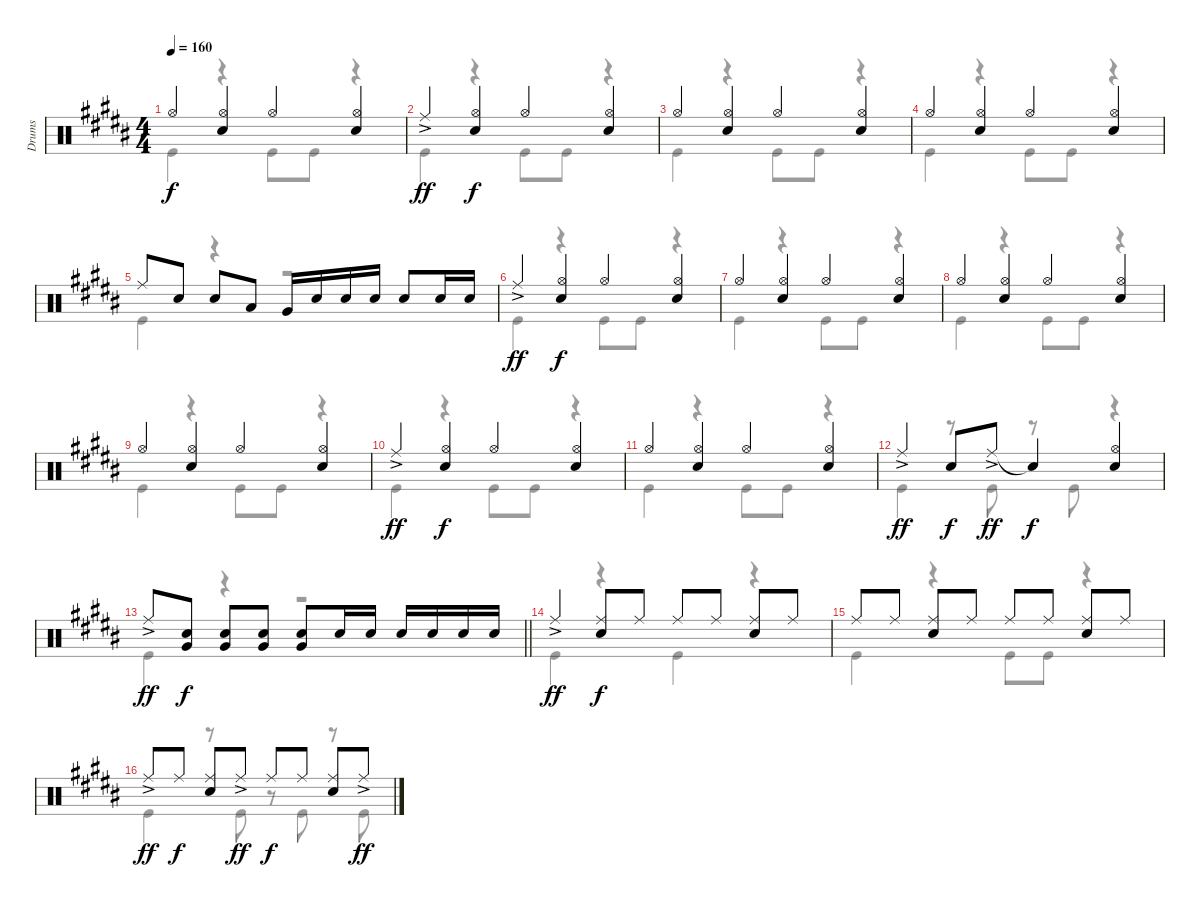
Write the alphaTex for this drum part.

\track ("Drums" "Drums") {instrument percussion}
\staff {score}
\articulation defaults
\voice
\ts (4 4)
\tempo 160
\clef neutral
\ks b "Hi-Hat (open)".4{dy f}
("Hi-Hat (open)" "Snare (hit) 2").4 "Hi-Hat (open)".4 ("Hi-Hat (open)" "Snare (hit) 2").4 |
"Ride (middle)"{ac}.4{dy ff} ("Hi-Hat (open)" "Snare (hit) 2").4{dy f} "Hi-Hat (open)".4 ("Hi-Hat (open)" "Snare (hit) 2").4 |
"Hi-Hat (open)".4 ("Hi-Hat (open)" "Snare (hit) 2").4 "Hi-Hat (open)".4 ("Hi-Hat (open)" "Snare (hit) 2").4 |
"Hi-Hat (open)".4 ("Hi-Hat (open)" "Snare (hit) 2").4 "Hi-Hat (open)".4 ("Hi-Hat (open)" "Snare (hit) 2").4 |
"Ride (middle)".8 "Snare (hit) 2".8 "Snare (hit) 2".8 "Low Tom (hit)".8 "Very Low Tom (hit)".16 "Snare (hit) 2".16 "Snare (hit) 2".16 "Snare (hit) 2".16 "Snare (hit) 2".8 "Snare (hit) 2".16 "Snare (hit) 2".16 |
"Ride (middle)"{ac}.4{dy ff} ("Hi-Hat (open)" "Snare (hit) 2").4{dy f} "Hi-Hat (open)".4 ("Hi-Hat (open)" "Snare (hit) 2").4 |
"Hi-Hat (open)".4 ("Hi-Hat (open)" "Snare (hit) 2").4 "Hi-Hat (open)".4 ("Hi-Hat (open)" "Snare (hit) 2").4 |
"Hi-Hat (open)".4 ("Hi-Hat (open)" "Snare (hit) 2").4 "Hi-Hat (open)".4 ("Hi-Hat (open)" "Snare (hit) 2").4 |
"Hi-Hat (open)".4 ("Hi-Hat (open)" "Snare (hit) 2").4 "Hi-Hat (open)".4 ("Hi-Hat (open)" "Snare (hit) 2").4 |
"Ride (middle)"{ac}.4{dy ff} ("Hi-Hat (open)" "Snare (hit) 2").4{dy f} "Hi-Hat (open)".4 ("Hi-Hat (open)" "Snare (hit) 2").4 |
"Hi-Hat (open)".4 ("Hi-Hat (open)" "Snare (hit) 2").4 "Hi-Hat (open)".4 ("Hi-Hat (open)" "Snare (hit) 2").4 |
"Ride (middle)"{ac}.4{dy ff} "Snare (hit) 2".8{dy f} "Ride (middle)"{ac}.8{dy ff} "Snare (hit)"{t}.4{dy f} ("Hi-Hat (open)" "Snare (hit) 2").4 |
\barLineRight lightlight "Ride (middle)"{ac}.8{dy ff}
("Snare (hit) 2" "Very Low Tom (hit)").8{dy f} ("Snare (hit) 2" "Very Low Tom (hit)").8 ("Snare (hit) 2" "Very Low Tom (hit)").8 ("Snare (hit) 2" "Very Low Tom (hit)").8 "Snare (hit) 2".16 "Snare (hit) 2".16 "Snare (hit) 2".16 "Snare (hit) 2".16 "Snare (hit) 2".16 "Snare (hit) 2".16 |
"Ride (middle)"{ac}.4{dy ff} ("Ride (middle)" "Snare (hit) 2").8{dy f} "Ride (middle)".8 "Ride (middle)".8 "Ride (middle)".8 ("Ride (middle)" "Snare (hit) 2").8 "Ride (middle)".8 |
"Ride (middle)".8 "Ride (middle)".8 ("Ride (middle)" "Snare (hit) 2").8 "Ride (middle)".8 "Ride (middle)".8 "Ride (middle)".8 ("Ride (middle)" "Snare (hit) 2").8 "Ride (middle)".8 |
"Ride (middle)"{ac}.8{dy ff} "Ride (middle)".8{dy f} ("Ride (middle)" "Snare (hit) 2").8 "Ride (middle)"{ac}.8{dy ff} "Ride (middle)".8{dy f} "Ride (middle)".8 ("Ride (middle)" "Snare (hit) 2").8 "Ride (middle)"{ac}.8{dy ff}
\voice
\clef neutral
\ottava regular
\simile none
\ks b "Kick (hit)".4{dy f}
r.4 "Kick (hit)".8 "Kick (hit)".8 r.4 |
"Kick (hit)".4 r.4 "Kick (hit)".8 "Kick (hit)".8 r.4 |
"Kick (hit)".4 r.4 "Kick (hit)".8 "Kick (hit)".8 r.4 |
"Kick (hit)".4 r.4 "Kick (hit)".8 "Kick (hit)".8 r.4 |
"Kick (hit)".4 r.4 r.2 |
"Kick (hit)".4 r.4 "Kick (hit)".8 "Kick (hit)".8 r.4 |
"Kick (hit)".4 r.4 "Kick (hit)".8 "Kick (hit)".8 r.4 |
"Kick (hit)".4 r.4 "Kick (hit)".8 "Kick (hit)".8 r.4 |
"Kick (hit)".4 r.4 "Kick (hit)".8 "Kick (hit)".8 r.4 |
"Kick (hit)".4 r.4 "Kick (hit)".8 "Kick (hit)".8 r.4 |
"Kick (hit)".4 r.4 "Kick (hit)".8 "Kick (hit)".8 r.4 |
"Kick (hit)".4 r.8 "Kick (hit)".8 r.8 "Kick (hit)".8 r.4 |
\barLineRight lightlight "Kick (hit)".4
r.4 r.2 |
"Kick (hit)".4 r.4 "Kick (hit)".4 r.4 |
"Kick (hit)".4 r.4 "Kick (hit)".8 "Kick (hit)".8 r.4 |
"Kick (hit)".4 r.8 "Kick (hit)".8 r.8 "Kick (hit)".8 r.8 "Kick (hit)".8
